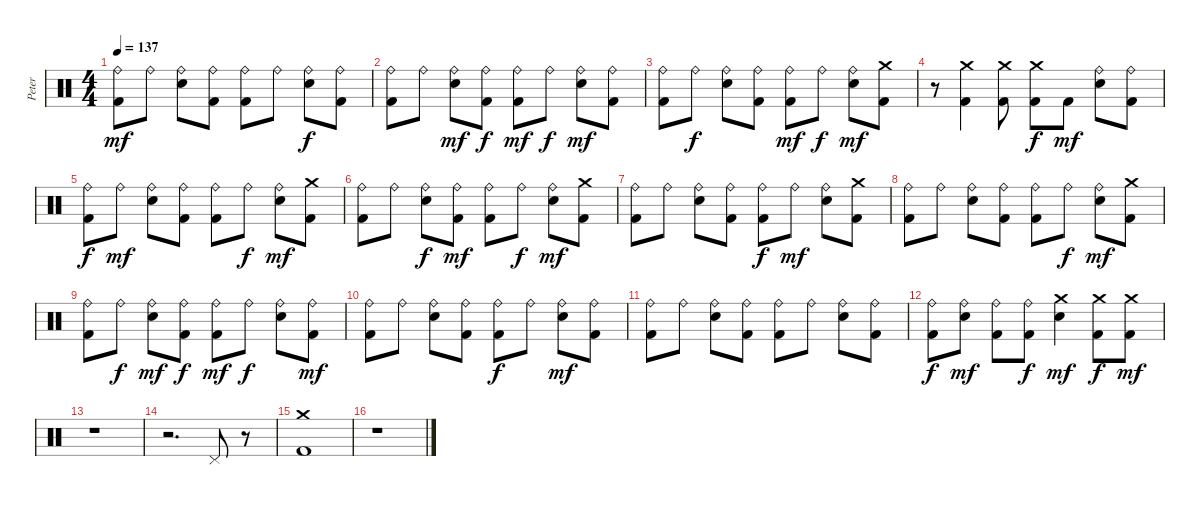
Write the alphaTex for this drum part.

\track ("Peter" "Peter") {instrument percussion}
\staff {score}
\articulation defaults
\ts (4 4)
\tempo 137
\clef neutral
\ks c
("Ride (bell)" "Kick (hit) 2").8{dy mf} "Ride (bell)".8 ("Electric Snare (hit)" "Ride (bell)").8 ("Kick (hit) 2" "Ride (bell)").8 ("Ride (bell)" "Kick (hit) 2").8 "Ride (bell)".8 ("Electric Snare (hit)" "Ride (bell)").8{dy f} ("Ride (bell)" "Kick (hit) 2").8 |
("Kick (hit) 2" "Ride (bell)").8 "Ride (bell)".8 ("Ride (bell)" "Electric Snare (hit)").8{dy mf} ("Ride (bell)" "Kick (hit) 2").8{dy f} ("Ride (bell)" "Kick (hit) 2").8{dy mf} "Ride (bell)".8{dy f} ("Electric Snare (hit)" "Ride (bell)").8{dy mf} ("Kick (hit) 2" "Ride (bell)").8 |
("Kick (hit) 2" "Ride (bell)").8 "Ride (bell)".8{dy f} ("Ride (bell)" "Electric Snare (hit)").8 ("Kick (hit) 2" "Ride (bell)").8 ("Ride (bell)" "Kick (hit) 2").8{dy mf} "Ride (bell)".8{dy f} ("Electric Snare (hit)" "Ride (bell)").8{dy mf} ("Crash medium (hit)" "Kick (hit) 2").8 |
r.8 ("Crash medium (hit)" "Kick (hit) 2").4 ("Kick (hit) 2" "Crash medium (hit)").8 ("Crash medium (hit)" "Kick (hit) 2").8{dy f} "Kick (hit) 2".8{dy mf} ("Ride (bell)" "Electric Snare (hit)").8 ("Ride (bell)" "Kick (hit) 2").8 |
("Ride (bell)" "Kick (hit) 2").8{dy f} "Ride (bell)".8{dy mf} ("Ride (bell)" "Electric Snare (hit)").8 ("Ride (bell)" "Kick (hit) 2").8 ("Ride (bell)" "Kick (hit) 2").8 "Ride (bell)".8{dy f} ("Ride (bell)" "Electric Snare (hit)").8{dy mf} ("Crash medium (hit)" "Kick (hit) 2").8 |
("Ride (bell)" "Kick (hit) 2").8 "Ride (bell)".8 ("Electric Snare (hit)" "Ride (bell)").8{dy f} ("Ride (bell)" "Kick (hit) 2").8{dy mf} ("Ride (bell)" "Kick (hit) 2").8 "Ride (bell)".8{dy f} ("Ride (bell)" "Electric Snare (hit)").8{dy mf} ("Crash medium (hit)" "Kick (hit) 2").8 |
("Kick (hit) 2" "Ride (bell)").8 "Ride (bell)".8 ("Electric Snare (hit)" "Ride (bell)").8 ("Ride (bell)" "Kick (hit) 2").8 ("Ride (bell)" "Kick (hit) 2").8{dy f} "Ride (bell)".8{dy mf} ("Ride (bell)" "Electric Snare (hit)").8 ("Kick (hit) 2" "Crash medium (hit)").8 |
("Kick (hit) 2" "Ride (bell)").8 "Ride (bell)".8 ("Ride (bell)" "Electric Snare (hit)").8 ("Kick (hit) 2" "Ride (bell)").8 ("Kick (hit) 2" "Ride (bell)").8 "Ride (bell)".8{dy f} ("Ride (bell)" "Electric Snare (hit)").8{dy mf} ("Kick (hit) 2" "Crash medium (hit)").8 |
("Ride (bell)" "Kick (hit) 2").8 "Ride (bell)".8{dy f} ("Electric Snare (hit)" "Ride (bell)").8{dy mf} ("Ride (bell)" "Kick (hit) 2").8{dy f} ("Kick (hit) 2" "Ride (bell)").8{dy mf} "Ride (bell)".8{dy f} ("Ride (bell)" "Electric Snare (hit)").8 ("Ride (bell)" "Kick (hit) 2").8{dy mf} |
("Ride (bell)" "Kick (hit) 2").8 "Ride (bell)".8 ("Ride (bell)" "Electric Snare (hit)").8 ("Ride (bell)" "Kick (hit) 2").8 ("Kick (hit) 2" "Ride (bell)").8{dy f} "Ride (bell)".8 ("Ride (bell)" "Electric Snare (hit)").8{dy mf} ("Kick (hit) 2" "Ride (bell)").8 |
("Ride (bell)" "Kick (hit) 2").8 "Ride (bell)".8 ("Electric Snare (hit)" "Ride (bell)").8 ("Kick (hit) 2" "Ride (bell)").8 ("Ride (bell)" "Kick (hit) 2").8 "Ride (bell)".8 ("Ride (bell)" "Electric Snare (hit)").8 ("Kick (hit) 2" "Ride (bell)").8 |
("Kick (hit) 2" "Ride (bell)").8{dy f} ("Electric Snare (hit)" "Ride (bell)").8{dy mf} ("Kick (hit) 2" "Ride (bell)").8 ("Kick (hit) 2" "Ride (bell)").8{dy f} ("Crash medium (hit)" "Electric Snare (hit)").4{dy mf} ("Crash medium (hit)" "Kick (hit) 2").8{dy f} ("Kick (hit) 2" "Crash medium (hit)").8{dy mf} |
r.1 |
r.2{d} "Pedal Hi-Hat (hit)".8 r.8 |
("Crash medium (hit)" "Kick (hit) 2").1 |
r.1
